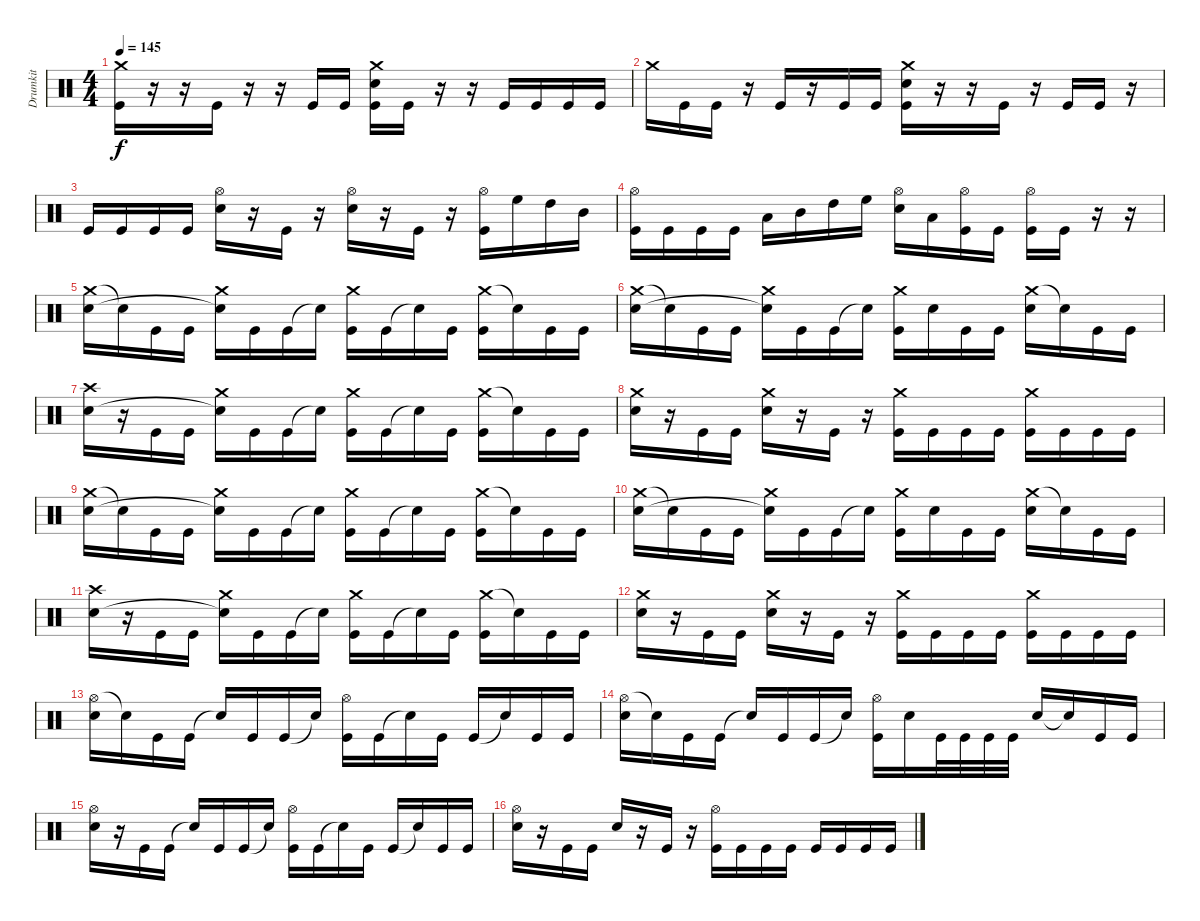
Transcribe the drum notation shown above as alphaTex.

\track ("Drumkit" "Drumkit") {instrument percussion}
\staff {score}
\articulation defaults
\ts (4 4)
\tempo 145
\clef neutral
\ks c
("Crash medium (hit)" "Kick (hit)").16{dy f} r.16 r.16 "Kick (hit)".16 r.16 r.16 "Kick (hit)".16 "Kick (hit)".16 ("Crash medium (hit)" "Electric Snare (hit)" "Kick (hit)").16 "Kick (hit)".16 r.16 r.16 "Kick (hit)".16 "Kick (hit)".16 "Kick (hit)".16 "Kick (hit)".16 |
"Crash medium (hit)".16 "Kick (hit)".16 "Kick (hit)".16 r.16 "Kick (hit)".16 r.16 "Kick (hit)".16 "Kick (hit)".16 ("Crash medium (hit)" "Electric Snare (hit)" "Kick (hit)").16 r.16 r.16 "Kick (hit)".16 r.16 "Kick (hit)".16 "Kick (hit)".16 r.16 |
"Kick (hit)".16 "Kick (hit)".16 "Kick (hit)".16 "Kick (hit)".16 ("Hi-Hat (open)" "Electric Snare (hit)").16 r.16 "Kick (hit)".16 r.16 ("Hi-Hat (open)" "Electric Snare (hit)").16 r.16 "Kick (hit)".16 r.16 ("Hi-Hat (open)" "Kick (hit)").16 "High Floor Tom (hit)".16 "High Tom (hit)".16 "Mid Tom (hit)".16 |
("Hi-Hat (open)" "Kick (hit)").16 "Kick (hit)".16 "Kick (hit)".16 "Kick (hit)".16 "Low Tom (hit)".16 "Mid Tom (hit)".16 "High Tom (hit)".16 "High Floor Tom (hit)".16 ("Hi-Hat (open)" "Electric Snare (hit)").16 "Low Tom (hit)".16 ("Hi-Hat (open)" "Kick (hit)").16 "Kick (hit)".16 ("Hi-Hat (open)" "Kick (hit)").16 "Kick (hit)".16 r.16 r.16 |
("Crash medium (hit)" "Electric Snare (hit)").16 "Snare (hit)"{t}.16 "Kick (hit)".16 "Kick (hit)".16 ("Crash medium (hit)" "Snare (hit)"{t}).16 "Kick (hit)".16 "Kick (hit)".16 "Snare (hit)"{t}.16 ("Crash medium (hit)" "Kick (hit)").16 "Kick (hit)".16 "Snare (hit)"{t}.16 "Kick (hit)".16 ("Crash medium (hit)" "Kick (hit)").16 "Snare (hit)"{t}.16 "Kick (hit)".16 "Kick (hit)".16 |
("Crash medium (hit)" "Electric Snare (hit)").16 "Snare (hit)"{t}.16 "Kick (hit)".16 "Kick (hit)".16 ("Crash medium (hit)" "Snare (hit)"{t}).16 "Kick (hit)".16 "Kick (hit)".16 "Snare (hit)"{t}.16 ("Crash medium (hit)" "Kick (hit)").16 "Electric Snare (hit)".16 "Kick (hit)".16 "Kick (hit)".16 ("Crash medium (hit)" "Electric Snare (hit)").16 "Snare (hit)"{t}.16 "Kick (hit)".16 "Kick (hit)".16 |
("Crash high (hit)" "Electric Snare (hit)").16 r.16 "Kick (hit)".16 "Kick (hit)".16 ("Crash medium (hit)" "Snare (hit)"{t}).16 "Kick (hit)".16 "Kick (hit)".16 "Snare (hit)"{t}.16 ("Crash medium (hit)" "Kick (hit)").16 "Kick (hit)".16 "Snare (hit)"{t}.16 "Kick (hit)".16 ("Crash medium (hit)" "Kick (hit)").16 "Snare (hit)"{t}.16 "Kick (hit)".16 "Kick (hit)".16 |
("Crash medium (hit)" "Electric Snare (hit)").16 r.16 "Kick (hit)".16 "Kick (hit)".16 ("Crash medium (hit)" "Electric Snare (hit)").16 r.16 "Kick (hit)".16 r.16 ("Crash medium (hit)" "Kick (hit)").16 "Kick (hit)".16 "Kick (hit)".16 "Kick (hit)".16 ("Crash medium (hit)" "Kick (hit)").16 "Kick (hit)".16 "Kick (hit)".16 "Kick (hit)".16 |
("Crash medium (hit)" "Electric Snare (hit)").16 "Snare (hit)"{t}.16 "Kick (hit)".16 "Kick (hit)".16 ("Crash medium (hit)" "Snare (hit)"{t}).16 "Kick (hit)".16 "Kick (hit)".16 "Snare (hit)"{t}.16 ("Crash medium (hit)" "Kick (hit)").16 "Kick (hit)".16 "Snare (hit)"{t}.16 "Kick (hit)".16 ("Crash medium (hit)" "Kick (hit)").16 "Snare (hit)"{t}.16 "Kick (hit)".16 "Kick (hit)".16 |
("Crash medium (hit)" "Electric Snare (hit)").16 "Snare (hit)"{t}.16 "Kick (hit)".16 "Kick (hit)".16 ("Crash medium (hit)" "Snare (hit)"{t}).16 "Kick (hit)".16 "Kick (hit)".16 "Snare (hit)"{t}.16 ("Crash medium (hit)" "Kick (hit)").16 "Electric Snare (hit)".16 "Kick (hit)".16 "Kick (hit)".16 ("Crash medium (hit)" "Electric Snare (hit)").16 "Snare (hit)"{t}.16 "Kick (hit)".16 "Kick (hit)".16 |
("Crash high (hit)" "Electric Snare (hit)").16 r.16 "Kick (hit)".16 "Kick (hit)".16 ("Crash medium (hit)" "Snare (hit)"{t}).16 "Kick (hit)".16 "Kick (hit)".16 "Snare (hit)"{t}.16 ("Crash medium (hit)" "Kick (hit)").16 "Kick (hit)".16 "Snare (hit)"{t}.16 "Kick (hit)".16 ("Crash medium (hit)" "Kick (hit)").16 "Snare (hit)"{t}.16 "Kick (hit)".16 "Kick (hit)".16 |
("Crash medium (hit)" "Electric Snare (hit)").16 r.16 "Kick (hit)".16 "Kick (hit)".16 ("Crash medium (hit)" "Electric Snare (hit)").16 r.16 "Kick (hit)".16 r.16 ("Crash medium (hit)" "Kick (hit)").16 "Kick (hit)".16 "Kick (hit)".16 "Kick (hit)".16 ("Crash medium (hit)" "Kick (hit)").16 "Kick (hit)".16 "Kick (hit)".16 "Kick (hit)".16 |
("Hi-Hat (open)" "Electric Snare (hit)").16 "Snare (hit)"{t}.16 "Kick (hit)".16 "Kick (hit)".16 "Snare (hit)"{t}.16 "Kick (hit)".16 "Kick (hit)".16 "Snare (hit)"{t}.16 ("Hi-Hat (open)" "Kick (hit)").16 "Kick (hit)".16 "Snare (hit)"{t}.16 "Kick (hit)".16 "Kick (hit)".16 "Snare (hit)"{t}.16 "Kick (hit)".16 "Kick (hit)".16 |
("Hi-Hat (open)" "Electric Snare (hit)").16 "Snare (hit)"{t}.16 "Kick (hit)".16 "Kick (hit)".16 "Snare (hit)"{t}.16 "Kick (hit)".16 "Kick (hit)".16 "Snare (hit)"{t}.16 ("Hi-Hat (open)" "Kick (hit)").16 "Electric Snare (hit)".16 "Kick (hit)".32 "Kick (hit)".32 "Kick (hit)".32 "Kick (hit)".32 "Electric Snare (hit)".16 "Snare (hit)"{t}.16 "Kick (hit)".16 "Kick (hit)".16 |
("Hi-Hat (open)" "Electric Snare (hit)").16 r.16 "Kick (hit)".16 "Kick (hit)".16 "Snare (hit)"{t}.16 "Kick (hit)".16 "Kick (hit)".16 "Snare (hit)"{t}.16 ("Hi-Hat (open)" "Kick (hit)").16 "Kick (hit)".16 "Snare (hit)"{t}.16 "Kick (hit)".16 "Kick (hit)".16 "Snare (hit)"{t}.16 "Kick (hit)".16 "Kick (hit)".16 |
("Hi-Hat (open)" "Electric Snare (hit)").16 r.16 "Kick (hit)".16 "Kick (hit)".16 "Electric Snare (hit)".16 r.16 "Kick (hit)".16 r.16 ("Hi-Hat (open)" "Kick (hit)").16 "Kick (hit)".16 "Kick (hit)".16 "Kick (hit)".16 "Kick (hit)".16 "Kick (hit)".16 "Kick (hit)".16 "Kick (hit)".16
